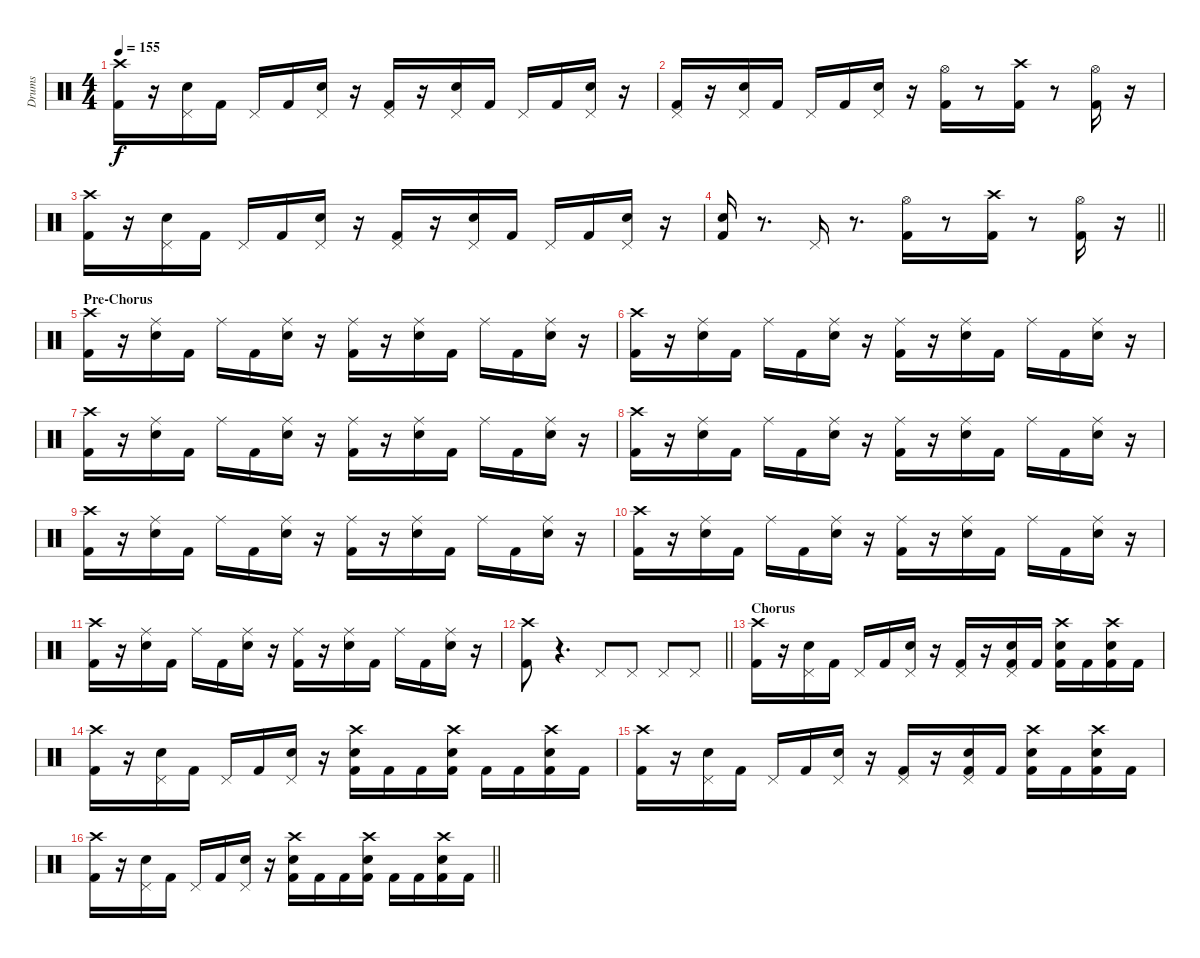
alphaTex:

\track ("Drums" "Drums") {instrument percussion}
\staff {score}
\articulation defaults
\ts (4 4)
\tempo 155
\clef neutral
\ks c
("Crash high (hit)" "Kick (hit) 2").16{dy f} r.16 ("Pedal Hi-Hat (hit)" "Snare (hit) 2").16 "Kick (hit) 2".16 "Pedal Hi-Hat (hit)".16 "Kick (hit) 2".16 ("Pedal Hi-Hat (hit)" "Snare (hit) 2").16 r.16 ("Pedal Hi-Hat (hit)" "Kick (hit) 2").16 r.16 ("Pedal Hi-Hat (hit)" "Snare (hit) 2").16 "Kick (hit) 2".16 "Pedal Hi-Hat (hit)".16 "Kick (hit) 2".16 ("Pedal Hi-Hat (hit)" "Snare (hit) 2").16 r.16 |
("Pedal Hi-Hat (hit)" "Kick (hit) 2").16 r.16 ("Pedal Hi-Hat (hit)" "Snare (hit) 2").16 "Kick (hit) 2".16 "Pedal Hi-Hat (hit)".16 "Kick (hit) 2".16 ("Pedal Hi-Hat (hit)" "Snare (hit) 2").16 r.16 ("Hi-Hat (open)" "Kick (hit) 2").16 r.8 ("Crash high (hit)" "Kick (hit) 2").16 r.8 ("Hi-Hat (open)" "Kick (hit) 2").16 r.16 |
("Crash high (hit)" "Kick (hit) 2").16 r.16 ("Pedal Hi-Hat (hit)" "Snare (hit) 2").16 "Kick (hit) 2".16 "Pedal Hi-Hat (hit)".16 "Kick (hit) 2".16 ("Pedal Hi-Hat (hit)" "Snare (hit) 2").16 r.16 ("Pedal Hi-Hat (hit)" "Kick (hit) 2").16 r.16 ("Pedal Hi-Hat (hit)" "Snare (hit) 2").16 "Kick (hit) 2".16 "Pedal Hi-Hat (hit)".16 "Kick (hit) 2".16 ("Pedal Hi-Hat (hit)" "Snare (hit) 2").16 r.16 |
\barLineRight lightlight
("Snare (hit) 2" "Kick (hit) 2").16 r.8{d} "Pedal Hi-Hat (hit)".16 r.8{d} ("Hi-Hat (open)" "Kick (hit) 2").16 r.8 ("Crash high (hit)" "Kick (hit) 2").16 r.8 ("Hi-Hat (open)" "Kick (hit) 2").16 r.16 |
\section ("" "Pre-Chorus")
("Crash high (hit)" "Kick (hit) 2").16 r.16 ("Ride (middle)" "Snare (hit) 2").16 "Kick (hit) 2".16 "Ride (middle)".16 "Kick (hit) 2".16 ("Ride (middle)" "Snare (hit) 2").16 r.16 ("Ride (middle)" "Kick (hit) 2").16 r.16 ("Ride (middle)" "Snare (hit) 2").16 "Kick (hit) 2".16 "Ride (middle)".16 "Kick (hit) 2".16 ("Ride (middle)" "Snare (hit) 2").16 r.16 |
("Crash high (hit)" "Kick (hit) 2").16 r.16 ("Ride (middle)" "Snare (hit) 2").16 "Kick (hit) 2".16 "Ride (middle)".16 "Kick (hit) 2".16 ("Ride (middle)" "Snare (hit) 2").16 r.16 ("Ride (middle)" "Kick (hit) 2").16 r.16 ("Ride (middle)" "Snare (hit) 2").16 "Kick (hit) 2".16 "Ride (middle)".16 "Kick (hit) 2".16 ("Ride (middle)" "Snare (hit) 2").16 r.16 |
("Crash high (hit)" "Kick (hit) 2").16 r.16 ("Ride (middle)" "Snare (hit) 2").16 "Kick (hit) 2".16 "Ride (middle)".16 "Kick (hit) 2".16 ("Ride (middle)" "Snare (hit) 2").16 r.16 ("Ride (middle)" "Kick (hit) 2").16 r.16 ("Ride (middle)" "Snare (hit) 2").16 "Kick (hit) 2".16 "Ride (middle)".16 "Kick (hit) 2".16 ("Ride (middle)" "Snare (hit) 2").16 r.16 |
("Crash high (hit)" "Kick (hit) 2").16 r.16 ("Ride (middle)" "Snare (hit) 2").16 "Kick (hit) 2".16 "Ride (middle)".16 "Kick (hit) 2".16 ("Ride (middle)" "Snare (hit) 2").16 r.16 ("Ride (middle)" "Kick (hit) 2").16 r.16 ("Ride (middle)" "Snare (hit) 2").16 "Kick (hit) 2".16 "Ride (middle)".16 "Kick (hit) 2".16 ("Ride (middle)" "Snare (hit) 2").16 r.16 |
("Crash high (hit)" "Kick (hit) 2").16 r.16 ("Ride (middle)" "Snare (hit) 2").16 "Kick (hit) 2".16 "Ride (middle)".16 "Kick (hit) 2".16 ("Ride (middle)" "Snare (hit) 2").16 r.16 ("Ride (middle)" "Kick (hit) 2").16 r.16 ("Ride (middle)" "Snare (hit) 2").16 "Kick (hit) 2".16 "Ride (middle)".16 "Kick (hit) 2".16 ("Ride (middle)" "Snare (hit) 2").16 r.16 |
("Crash high (hit)" "Kick (hit) 2").16 r.16 ("Ride (middle)" "Snare (hit) 2").16 "Kick (hit) 2".16 "Ride (middle)".16 "Kick (hit) 2".16 ("Ride (middle)" "Snare (hit) 2").16 r.16 ("Ride (middle)" "Kick (hit) 2").16 r.16 ("Ride (middle)" "Snare (hit) 2").16 "Kick (hit) 2".16 "Ride (middle)".16 "Kick (hit) 2".16 ("Ride (middle)" "Snare (hit) 2").16 r.16 |
("Crash high (hit)" "Kick (hit) 2").16 r.16 ("Ride (middle)" "Snare (hit) 2").16 "Kick (hit) 2".16 "Ride (middle)".16 "Kick (hit) 2".16 ("Ride (middle)" "Snare (hit) 2").16 r.16 ("Ride (middle)" "Kick (hit) 2").16 r.16 ("Ride (middle)" "Snare (hit) 2").16 "Kick (hit) 2".16 "Ride (middle)".16 "Kick (hit) 2".16 ("Ride (middle)" "Snare (hit) 2").16 r.16 |
\barLineRight lightlight
("Crash high (hit)" "Kick (hit) 2").8 r.4{d} "Pedal Hi-Hat (hit)".8 "Pedal Hi-Hat (hit)".8 "Pedal Hi-Hat (hit)".8 "Pedal Hi-Hat (hit)".8 |
\section ("" "Chorus")
("Crash high (hit)" "Kick (hit) 2").16 r.16 ("Pedal Hi-Hat (hit)" "Snare (hit) 2").16 "Kick (hit) 2".16 "Pedal Hi-Hat (hit)".16 "Kick (hit) 2".16 ("Pedal Hi-Hat (hit)" "Snare (hit) 2").16 r.16 ("Pedal Hi-Hat (hit)" "Kick (hit) 2").16 r.16 ("Pedal Hi-Hat (hit)" "Snare (hit) 2" "Kick (hit) 2").16 "Kick (hit) 2".16 ("Crash high (hit)" "Snare (hit) 2" "Kick (hit) 2").16 "Kick (hit) 2".16 ("Crash high (hit)" "Snare (hit) 2" "Kick (hit) 2").16 "Kick (hit) 2".16 |
("Crash high (hit)" "Kick (hit) 2").16 r.16 ("Pedal Hi-Hat (hit)" "Snare (hit) 2").16 "Kick (hit) 2".16 "Pedal Hi-Hat (hit)".16 "Kick (hit) 2".16 ("Pedal Hi-Hat (hit)" "Snare (hit) 2").16 r.16 ("Crash high (hit)" "Snare (hit) 2" "Kick (hit) 2").16 "Kick (hit) 2".16 "Kick (hit) 2".16 ("Crash high (hit)" "Snare (hit) 2" "Kick (hit) 2").16 "Kick (hit) 2".16 "Kick (hit) 2".16 ("Crash high (hit)" "Snare (hit) 2" "Kick (hit) 2").16 "Kick (hit) 2".16 |
("Crash high (hit)" "Kick (hit) 2").16 r.16 ("Pedal Hi-Hat (hit)" "Snare (hit) 2").16 "Kick (hit) 2".16 "Pedal Hi-Hat (hit)".16 "Kick (hit) 2".16 ("Pedal Hi-Hat (hit)" "Snare (hit) 2").16 r.16 ("Pedal Hi-Hat (hit)" "Kick (hit) 2").16 r.16 ("Pedal Hi-Hat (hit)" "Snare (hit) 2" "Kick (hit) 2").16 "Kick (hit) 2".16 ("Crash high (hit)" "Snare (hit) 2" "Kick (hit) 2").16 "Kick (hit) 2".16 ("Crash high (hit)" "Snare (hit) 2" "Kick (hit) 2").16 "Kick (hit) 2".16 |
\barLineRight lightlight
("Crash high (hit)" "Kick (hit) 2").16 r.16 ("Pedal Hi-Hat (hit)" "Snare (hit) 2").16 "Kick (hit) 2".16 "Pedal Hi-Hat (hit)".16 "Kick (hit) 2".16 ("Pedal Hi-Hat (hit)" "Snare (hit) 2").16 r.16 ("Crash high (hit)" "Snare (hit) 2" "Kick (hit) 2").16 "Kick (hit) 2".16 "Kick (hit) 2".16 ("Crash high (hit)" "Snare (hit) 2" "Kick (hit) 2").16 "Kick (hit) 2".16 "Kick (hit) 2".16 ("Crash high (hit)" "Snare (hit) 2" "Kick (hit) 2").16 "Kick (hit) 2".16
